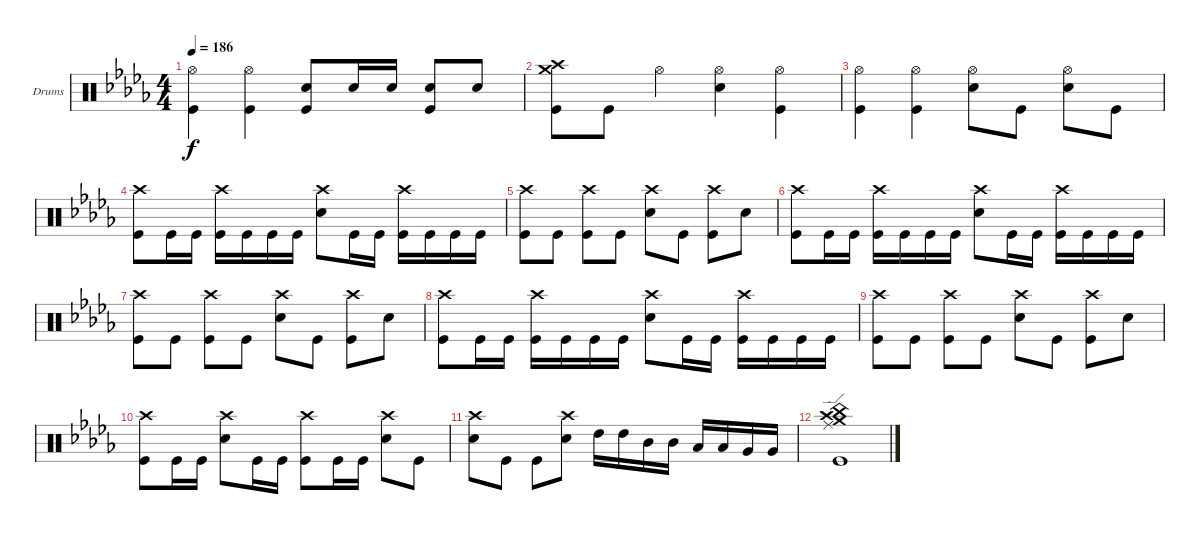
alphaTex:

\bracketExtendMode groupsimilarinstruments
\firstSystemTrackNameOrientation horizontal
\otherSystemsTrackNameOrientation horizontal
\track ("Drumkit" "Drums") {instrument percussion}
\staff {score}
\articulation defaults
\ts (4 4)
\tempo 186
\clef neutral
\ks db
("Hi-Hat (open)" "Kick (hit)").4{dy f} ("Hi-Hat (open)" "Kick (hit)").4 ("Snare (hit) 2" "Kick (hit)").8 "Snare (hit) 2".16 "Snare (hit) 2".16 ("Snare (hit) 2" "Kick (hit)").8 "Snare (hit) 2".8 |
("Crash medium (hit)" "Crash high (hit)" "Kick (hit)").8 "Kick (hit)".8 "Hi-Hat (open)".4 ("Hi-Hat (open)" "Snare (hit) 2").4 ("Hi-Hat (open)" "Kick (hit)").4 |
("Hi-Hat (open)" "Kick (hit)").4 ("Hi-Hat (open)" "Kick (hit)").4 ("Hi-Hat (open)" "Snare (hit) 2").8 "Kick (hit)".8 ("Hi-Hat (open)" "Snare (hit) 2").8 "Kick (hit)".8 |
("Crash high (hit)" "Kick (hit)").8 "Kick (hit)".16 "Kick (hit)".16 ("Crash high (hit)" "Kick (hit)").16 "Kick (hit)".16 "Kick (hit)".16 "Kick (hit)".16 ("Crash high (hit)" "Snare (hit) 2").8 "Kick (hit)".16 "Kick (hit)".16 ("Crash high (hit)" "Kick (hit)").16 "Kick (hit)".16 "Kick (hit)".16 "Kick (hit)".16 |
("Crash high (hit)" "Kick (hit)").8 "Kick (hit)".8 ("Crash high (hit)" "Kick (hit)").8 "Kick (hit)".8 ("Crash high (hit)" "Snare (hit) 2").8 "Kick (hit)".8 ("Crash high (hit)" "Kick (hit)").8 "Snare (hit) 2".8 |
("Crash high (hit)" "Kick (hit)").8 "Kick (hit)".16 "Kick (hit)".16 ("Crash high (hit)" "Kick (hit)").16 "Kick (hit)".16 "Kick (hit)".16 "Kick (hit)".16 ("Crash high (hit)" "Snare (hit) 2").8 "Kick (hit)".16 "Kick (hit)".16 ("Crash high (hit)" "Kick (hit)").16 "Kick (hit)".16 "Kick (hit)".16 "Kick (hit)".16 |
("Crash high (hit)" "Kick (hit)").8 "Kick (hit)".8 ("Crash high (hit)" "Kick (hit)").8 "Kick (hit)".8 ("Crash high (hit)" "Snare (hit) 2").8 "Kick (hit)".8 ("Crash high (hit)" "Kick (hit)").8 "Snare (hit) 2".8 |
("Crash high (hit)" "Kick (hit)").8 "Kick (hit)".16 "Kick (hit)".16 ("Crash high (hit)" "Kick (hit)").16 "Kick (hit)".16 "Kick (hit)".16 "Kick (hit)".16 ("Crash high (hit)" "Snare (hit) 2").8 "Kick (hit)".16 "Kick (hit)".16 ("Crash high (hit)" "Kick (hit)").16 "Kick (hit)".16 "Kick (hit)".16 "Kick (hit)".16 |
("Crash high (hit)" "Kick (hit)").8 "Kick (hit)".8 ("Crash high (hit)" "Kick (hit)").8 "Kick (hit)".8 ("Crash high (hit)" "Snare (hit) 2").8 "Kick (hit)".8 ("Crash high (hit)" "Kick (hit)").8 "Snare (hit) 2".8 |
("Crash high (hit)" "Kick (hit)").8 "Kick (hit)".16 "Kick (hit)".16 ("Crash high (hit)" "Snare (hit) 2").8 "Kick (hit)".16 "Kick (hit)".16 ("Crash high (hit)" "Kick (hit)").8 "Kick (hit)".16 "Kick (hit)".16 ("Crash high (hit)" "Snare (hit) 2").8 "Kick (hit)".8 |
("Crash high (hit)" "Snare (hit) 2").8 "Kick (hit)".8 "Kick (hit)".8 ("Crash high (hit)" "Snare (hit) 2").8 "High Tom (hit)".16 "High Tom (hit)".16 "Mid Tom (hit)".16 "Mid Tom (hit)".16 "Low Tom (hit)".16 "Low Tom (hit)".16 "Very Low Tom (hit)".16 "Very Low Tom (hit)".16 |
("Ride (edge)" "Crash high (hit)" "Crash medium (hit)" "China (hit)" "Kick (hit)").1
